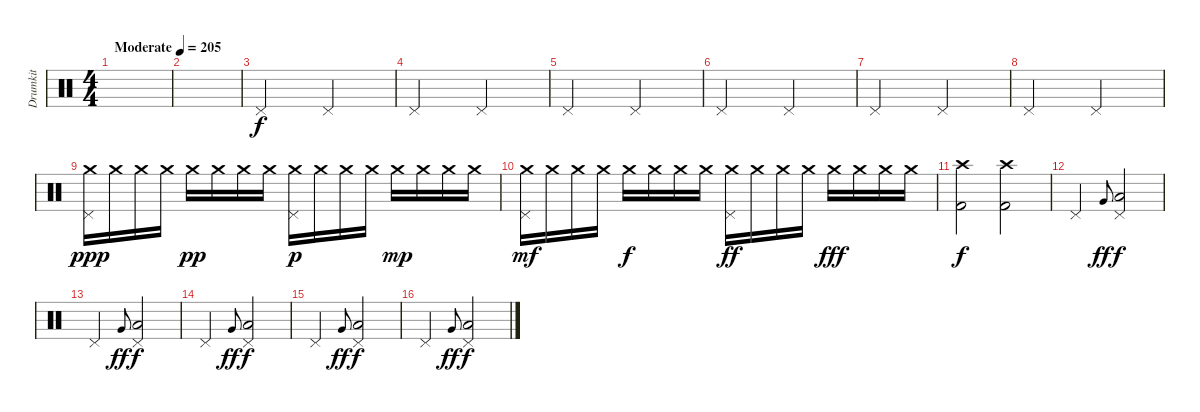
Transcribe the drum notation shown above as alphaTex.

\track ("Drumkit" "Drumkit") {instrument percussion}
\staff {score}
\articulation defaults
\ts (4 4)
\tempo (205 "Moderate")
\clef neutral
\ks c
|
|
"Pedal Hi-Hat (hit)".2 "Pedal Hi-Hat (hit)".2 |
"Pedal Hi-Hat (hit)".2 "Pedal Hi-Hat (hit)".2 |
"Pedal Hi-Hat (hit)".2 "Pedal Hi-Hat (hit)".2 |
"Pedal Hi-Hat (hit)".2 "Pedal Hi-Hat (hit)".2 |
"Pedal Hi-Hat (hit)".2 "Pedal Hi-Hat (hit)".2 |
"Pedal Hi-Hat (hit)".2 "Pedal Hi-Hat (hit)".2 |
("Crash medium (hit)" "Pedal Hi-Hat (hit)").16{dy ppp} "Crash medium (hit)".16 "Crash medium (hit)".16 "Crash medium (hit)".16 "Crash medium (hit)".16{dy pp} "Crash medium (hit)".16 "Crash medium (hit)".16 "Crash medium (hit)".16 ("Crash medium (hit)" "Pedal Hi-Hat (hit)").16{dy p} "Crash medium (hit)".16 "Crash medium (hit)".16 "Crash medium (hit)".16 "Crash medium (hit)".16{dy mp} "Crash medium (hit)".16 "Crash medium (hit)".16 "Crash medium (hit)".16 |
("Crash medium (hit)" "Pedal Hi-Hat (hit)").16{dy mf} "Crash medium (hit)".16 "Crash medium (hit)".16 "Crash medium (hit)".16 "Crash medium (hit)".16{dy f} "Crash medium (hit)".16 "Crash medium (hit)".16 "Crash medium (hit)".16 ("Crash medium (hit)" "Pedal Hi-Hat (hit)").16{dy ff} "Crash medium (hit)".16 "Crash medium (hit)".16 "Crash medium (hit)".16 "Crash medium (hit)".16{dy fff} "Crash medium (hit)".16 "Crash medium (hit)".16 "Crash medium (hit)".16 |
("Crash high (hit)" "Kick (hit) 2").2{dy f} ("Crash high (hit)" "Kick (hit) 2").2 |
"Pedal Hi-Hat (hit)".2 "Very Low Tom (hit)".8{gr onbeat dy ff} ("Low Tom (hit)" "Pedal Hi-Hat (hit)").2{dy f} |
"Pedal Hi-Hat (hit)".2 "Very Low Tom (hit)".8{gr onbeat dy ff} ("Low Tom (hit)" "Pedal Hi-Hat (hit)").2{dy f} |
"Pedal Hi-Hat (hit)".2 "Very Low Tom (hit)".8{gr onbeat dy ff} ("Low Tom (hit)" "Pedal Hi-Hat (hit)").2{dy f} |
"Pedal Hi-Hat (hit)".2 "Very Low Tom (hit)".8{gr onbeat dy ff} ("Low Tom (hit)" "Pedal Hi-Hat (hit)").2{dy f} |
"Pedal Hi-Hat (hit)".2 "Very Low Tom (hit)".8{gr onbeat dy ff} ("Low Tom (hit)" "Pedal Hi-Hat (hit)").2{dy f}
